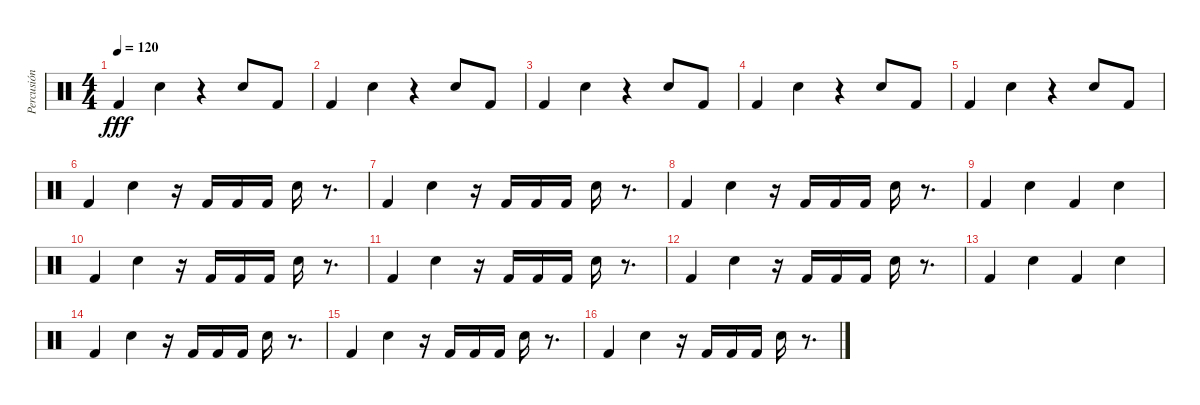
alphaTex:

\track ("Percusión" "Percusión") {instrument percussion}
\staff {score}
\articulation defaults
\ts (4 4)
\tempo 120
\clef neutral
\ks c "Kick (hit) 2".4{dy fff} "Snare (hit) 2".4
r.4 "Snare (hit) 2".8 "Kick (hit) 2".8 |
"Kick (hit) 2".4 "Snare (hit) 2".4 r.4 "Snare (hit) 2".8 "Kick (hit) 2".8 |
"Kick (hit) 2".4 "Snare (hit) 2".4 r.4 "Snare (hit) 2".8 "Kick (hit) 2".8 |
"Kick (hit) 2".4 "Snare (hit) 2".4 r.4 "Snare (hit) 2".8 "Kick (hit) 2".8 |
"Kick (hit) 2".4 "Snare (hit) 2".4 r.4 "Snare (hit) 2".8 "Kick (hit) 2".8 |
"Kick (hit) 2".4 "Snare (hit) 2".4 r.16 "Kick (hit) 2".16 "Kick (hit) 2".16 "Kick (hit) 2".16 "Snare (hit) 2".16 r.8{d} |
"Kick (hit) 2".4 "Snare (hit) 2".4 r.16 "Kick (hit) 2".16 "Kick (hit) 2".16 "Kick (hit) 2".16 "Snare (hit) 2".16 r.8{d} |
"Kick (hit) 2".4 "Snare (hit) 2".4 r.16 "Kick (hit) 2".16 "Kick (hit) 2".16 "Kick (hit) 2".16 "Snare (hit) 2".16 r.8{d} |
"Kick (hit) 2".4 "Snare (hit) 2".4 "Kick (hit) 2".4 "Snare (hit) 2".4 |
"Kick (hit) 2".4 "Snare (hit) 2".4 r.16 "Kick (hit) 2".16 "Kick (hit) 2".16 "Kick (hit) 2".16 "Snare (hit) 2".16 r.8{d} |
"Kick (hit) 2".4 "Snare (hit) 2".4 r.16 "Kick (hit) 2".16 "Kick (hit) 2".16 "Kick (hit) 2".16 "Snare (hit) 2".16 r.8{d} |
"Kick (hit) 2".4 "Snare (hit) 2".4 r.16 "Kick (hit) 2".16 "Kick (hit) 2".16 "Kick (hit) 2".16 "Snare (hit) 2".16 r.8{d} |
"Kick (hit) 2".4 "Snare (hit) 2".4 "Kick (hit) 2".4 "Snare (hit) 2".4 |
"Kick (hit) 2".4 "Snare (hit) 2".4 r.16 "Kick (hit) 2".16 "Kick (hit) 2".16 "Kick (hit) 2".16 "Snare (hit) 2".16 r.8{d} |
"Kick (hit) 2".4 "Snare (hit) 2".4 r.16 "Kick (hit) 2".16 "Kick (hit) 2".16 "Kick (hit) 2".16 "Snare (hit) 2".16 r.8{d} |
"Kick (hit) 2".4 "Snare (hit) 2".4 r.16 "Kick (hit) 2".16 "Kick (hit) 2".16 "Kick (hit) 2".16 "Snare (hit) 2".16 r.8{d}
